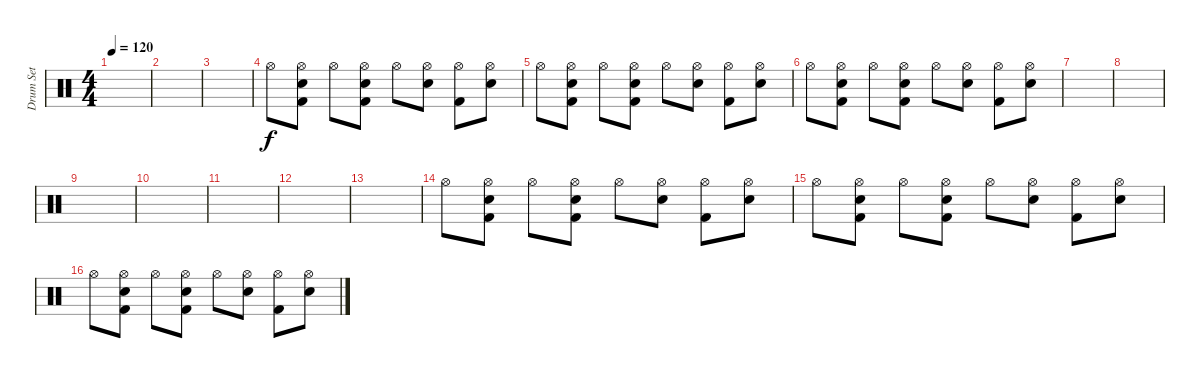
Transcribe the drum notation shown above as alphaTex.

\track ("Drum Set" "Drum Set") {instrument percussion}
\staff {score}
\articulation defaults
\ts (4 4)
\tempo 120
\clef neutral
\ks c
|
|
|
"Hi-Hat (open)".8 ("Hi-Hat (open)" "Snare (hit) 2" "Kick (hit) 2").8 "Hi-Hat (open)".8 ("Hi-Hat (open)" "Snare (hit) 2" "Kick (hit) 2").8 "Hi-Hat (open)".8 ("Hi-Hat (open)" "Snare (hit) 2").8 ("Hi-Hat (open)" "Kick (hit) 2").8 ("Hi-Hat (open)" "Snare (hit) 2").8 |
"Hi-Hat (open)".8 ("Hi-Hat (open)" "Snare (hit) 2" "Kick (hit) 2").8 "Hi-Hat (open)".8 ("Hi-Hat (open)" "Snare (hit) 2" "Kick (hit) 2").8 "Hi-Hat (open)".8 ("Hi-Hat (open)" "Snare (hit) 2").8 ("Hi-Hat (open)" "Kick (hit) 2").8 ("Hi-Hat (open)" "Snare (hit) 2").8 |
"Hi-Hat (open)".8 ("Hi-Hat (open)" "Snare (hit) 2" "Kick (hit) 2").8 "Hi-Hat (open)".8 ("Hi-Hat (open)" "Snare (hit) 2" "Kick (hit) 2").8 "Hi-Hat (open)".8 ("Hi-Hat (open)" "Snare (hit) 2").8 ("Hi-Hat (open)" "Kick (hit) 2").8 ("Hi-Hat (open)" "Snare (hit) 2").8 |
|
|
|
|
|
|
|
"Hi-Hat (open)".8 ("Hi-Hat (open)" "Snare (hit) 2" "Kick (hit) 2").8 "Hi-Hat (open)".8 ("Hi-Hat (open)" "Snare (hit) 2" "Kick (hit) 2").8 "Hi-Hat (open)".8 ("Hi-Hat (open)" "Snare (hit) 2").8 ("Hi-Hat (open)" "Kick (hit) 2").8 ("Hi-Hat (open)" "Snare (hit) 2").8 |
"Hi-Hat (open)".8 ("Hi-Hat (open)" "Snare (hit) 2" "Kick (hit) 2").8 "Hi-Hat (open)".8 ("Hi-Hat (open)" "Snare (hit) 2" "Kick (hit) 2").8 "Hi-Hat (open)".8 ("Hi-Hat (open)" "Snare (hit) 2").8 ("Hi-Hat (open)" "Kick (hit) 2").8 ("Hi-Hat (open)" "Snare (hit) 2").8 |
"Hi-Hat (open)".8 ("Hi-Hat (open)" "Snare (hit) 2" "Kick (hit) 2").8 "Hi-Hat (open)".8 ("Hi-Hat (open)" "Snare (hit) 2" "Kick (hit) 2").8 "Hi-Hat (open)".8 ("Hi-Hat (open)" "Snare (hit) 2").8 ("Hi-Hat (open)" "Kick (hit) 2").8 ("Hi-Hat (open)" "Snare (hit) 2").8
